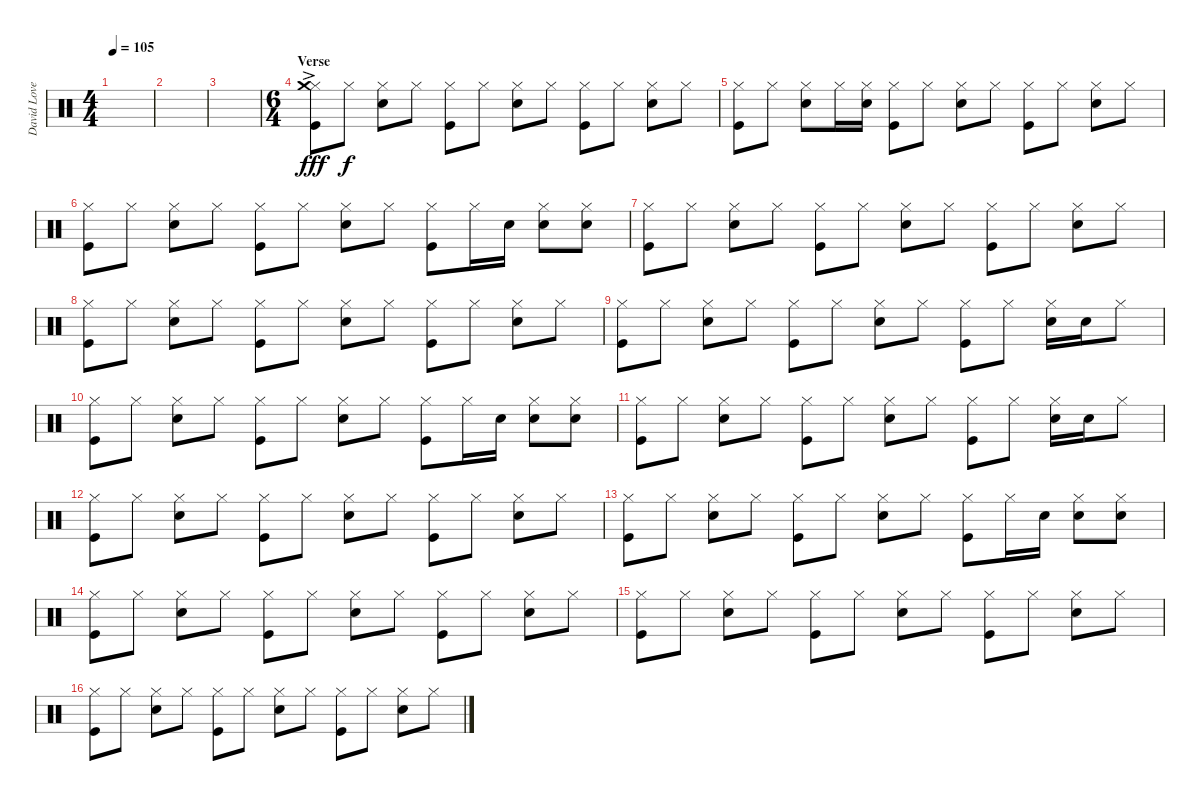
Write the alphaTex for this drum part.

\track ("David Lovering" "David Love") {instrument percussion}
\staff {score}
\articulation defaults
\ts (4 4)
\tempo 105
\clef neutral
\ks c
|
|
|
\ts (6 4)
\section ("" "Verse")
("Hi-Hat (closed)" "Crash medium (hit)"{ac} "Kick (hit)").8{dy fff} "Hi-Hat (closed)".8{dy f} ("Hi-Hat (closed)" "Snare (hit) 2").8 "Hi-Hat (closed)".8 ("Hi-Hat (closed)" "Kick (hit)").8 "Hi-Hat (closed)".8 ("Hi-Hat (closed)" "Snare (hit) 2").8 "Hi-Hat (closed)".8 ("Hi-Hat (closed)" "Kick (hit)").8 "Hi-Hat (closed)".8 ("Hi-Hat (closed)" "Snare (hit) 2").8 "Hi-Hat (closed)".8 |
("Hi-Hat (closed)" "Kick (hit)").8 "Hi-Hat (closed)".8 ("Hi-Hat (closed)" "Snare (hit) 2").8 "Hi-Hat (closed)".16 ("Hi-Hat (closed)" "Snare (hit) 2").16 ("Hi-Hat (closed)" "Kick (hit)").8 "Hi-Hat (closed)".8 ("Hi-Hat (closed)" "Snare (hit) 2").8 "Hi-Hat (closed)".8 ("Hi-Hat (closed)" "Kick (hit)").8 "Hi-Hat (closed)".8 ("Hi-Hat (closed)" "Snare (hit) 2").8 "Hi-Hat (closed)".8 |
("Hi-Hat (closed)" "Kick (hit)").8 "Hi-Hat (closed)".8 ("Hi-Hat (closed)" "Snare (hit) 2").8 "Hi-Hat (closed)".8 ("Hi-Hat (closed)" "Kick (hit)").8 "Hi-Hat (closed)".8 ("Hi-Hat (closed)" "Snare (hit) 2").8 "Hi-Hat (closed)".8 ("Hi-Hat (closed)" "Kick (hit)").8 "Hi-Hat (closed)".16 "Snare (hit) 2".16 ("Hi-Hat (closed)" "Snare (hit) 2").8 ("Hi-Hat (closed)" "Snare (hit) 2").8 |
("Hi-Hat (closed)" "Kick (hit)").8 "Hi-Hat (closed)".8 ("Hi-Hat (closed)" "Snare (hit) 2").8 "Hi-Hat (closed)".8 ("Hi-Hat (closed)" "Kick (hit)").8 "Hi-Hat (closed)".8 ("Hi-Hat (closed)" "Snare (hit) 2").8 "Hi-Hat (closed)".8 ("Hi-Hat (closed)" "Kick (hit)").8 "Hi-Hat (closed)".8 ("Hi-Hat (closed)" "Snare (hit) 2").8 "Hi-Hat (closed)".8 |
("Hi-Hat (closed)" "Kick (hit)").8 "Hi-Hat (closed)".8 ("Hi-Hat (closed)" "Snare (hit) 2").8 "Hi-Hat (closed)".8 ("Hi-Hat (closed)" "Kick (hit)").8 "Hi-Hat (closed)".8 ("Hi-Hat (closed)" "Snare (hit) 2").8 "Hi-Hat (closed)".8 ("Hi-Hat (closed)" "Kick (hit)").8 "Hi-Hat (closed)".8 ("Hi-Hat (closed)" "Snare (hit) 2").8 "Hi-Hat (closed)".8 |
("Hi-Hat (closed)" "Kick (hit)").8 "Hi-Hat (closed)".8 ("Hi-Hat (closed)" "Snare (hit) 2").8 "Hi-Hat (closed)".8 ("Hi-Hat (closed)" "Kick (hit)").8 "Hi-Hat (closed)".8 ("Hi-Hat (closed)" "Snare (hit) 2").8 "Hi-Hat (closed)".8 ("Hi-Hat (closed)" "Kick (hit)").8 "Hi-Hat (closed)".8 ("Hi-Hat (closed)" "Snare (hit) 2").16 "Snare (hit) 2".16 "Hi-Hat (closed)".8 |
("Hi-Hat (closed)" "Kick (hit)").8 "Hi-Hat (closed)".8 ("Hi-Hat (closed)" "Snare (hit) 2").8 "Hi-Hat (closed)".8 ("Hi-Hat (closed)" "Kick (hit)").8 "Hi-Hat (closed)".8 ("Hi-Hat (closed)" "Snare (hit) 2").8 "Hi-Hat (closed)".8 ("Hi-Hat (closed)" "Kick (hit)").8 "Hi-Hat (closed)".16 "Snare (hit) 2".16 ("Hi-Hat (closed)" "Snare (hit) 2").8 ("Hi-Hat (closed)" "Snare (hit) 2").8 |
("Hi-Hat (closed)" "Kick (hit)").8 "Hi-Hat (closed)".8 ("Hi-Hat (closed)" "Snare (hit) 2").8 "Hi-Hat (closed)".8 ("Hi-Hat (closed)" "Kick (hit)").8 "Hi-Hat (closed)".8 ("Hi-Hat (closed)" "Snare (hit) 2").8 "Hi-Hat (closed)".8 ("Hi-Hat (closed)" "Kick (hit)").8 "Hi-Hat (closed)".8 ("Hi-Hat (closed)" "Snare (hit) 2").16 "Snare (hit) 2".16 "Hi-Hat (closed)".8 |
("Hi-Hat (closed)" "Kick (hit)").8 "Hi-Hat (closed)".8 ("Hi-Hat (closed)" "Snare (hit) 2").8 "Hi-Hat (closed)".8 ("Hi-Hat (closed)" "Kick (hit)").8 "Hi-Hat (closed)".8 ("Hi-Hat (closed)" "Snare (hit) 2").8 "Hi-Hat (closed)".8 ("Hi-Hat (closed)" "Kick (hit)").8 "Hi-Hat (closed)".8 ("Hi-Hat (closed)" "Snare (hit) 2").8 "Hi-Hat (closed)".8 |
("Hi-Hat (closed)" "Kick (hit)").8 "Hi-Hat (closed)".8 ("Hi-Hat (closed)" "Snare (hit) 2").8 "Hi-Hat (closed)".8 ("Hi-Hat (closed)" "Kick (hit)").8 "Hi-Hat (closed)".8 ("Hi-Hat (closed)" "Snare (hit) 2").8 "Hi-Hat (closed)".8 ("Hi-Hat (closed)" "Kick (hit)").8 "Hi-Hat (closed)".16 "Snare (hit) 2".16 ("Hi-Hat (closed)" "Snare (hit) 2").8 ("Hi-Hat (closed)" "Snare (hit) 2").8 |
("Hi-Hat (closed)" "Kick (hit)").8 "Hi-Hat (closed)".8 ("Hi-Hat (closed)" "Snare (hit) 2").8 "Hi-Hat (closed)".8 ("Hi-Hat (closed)" "Kick (hit)").8 "Hi-Hat (closed)".8 ("Hi-Hat (closed)" "Snare (hit) 2").8 "Hi-Hat (closed)".8 ("Hi-Hat (closed)" "Kick (hit)").8 "Hi-Hat (closed)".8 ("Hi-Hat (closed)" "Snare (hit) 2").8 "Hi-Hat (closed)".8 |
("Hi-Hat (closed)" "Kick (hit)").8 "Hi-Hat (closed)".8 ("Hi-Hat (closed)" "Snare (hit) 2").8 "Hi-Hat (closed)".8 ("Hi-Hat (closed)" "Kick (hit)").8 "Hi-Hat (closed)".8 ("Hi-Hat (closed)" "Snare (hit) 2").8 "Hi-Hat (closed)".8 ("Hi-Hat (closed)" "Kick (hit)").8 "Hi-Hat (closed)".8 ("Hi-Hat (closed)" "Snare (hit) 2").8 "Hi-Hat (closed)".8 |
("Hi-Hat (closed)" "Kick (hit)").8 "Hi-Hat (closed)".8 ("Hi-Hat (closed)" "Snare (hit) 2").8 "Hi-Hat (closed)".8 ("Hi-Hat (closed)" "Kick (hit)").8 "Hi-Hat (closed)".8 ("Hi-Hat (closed)" "Snare (hit) 2").8 "Hi-Hat (closed)".8 ("Hi-Hat (closed)" "Kick (hit)").8 "Hi-Hat (closed)".8 ("Hi-Hat (closed)" "Snare (hit) 2").8 "Hi-Hat (closed)".8
